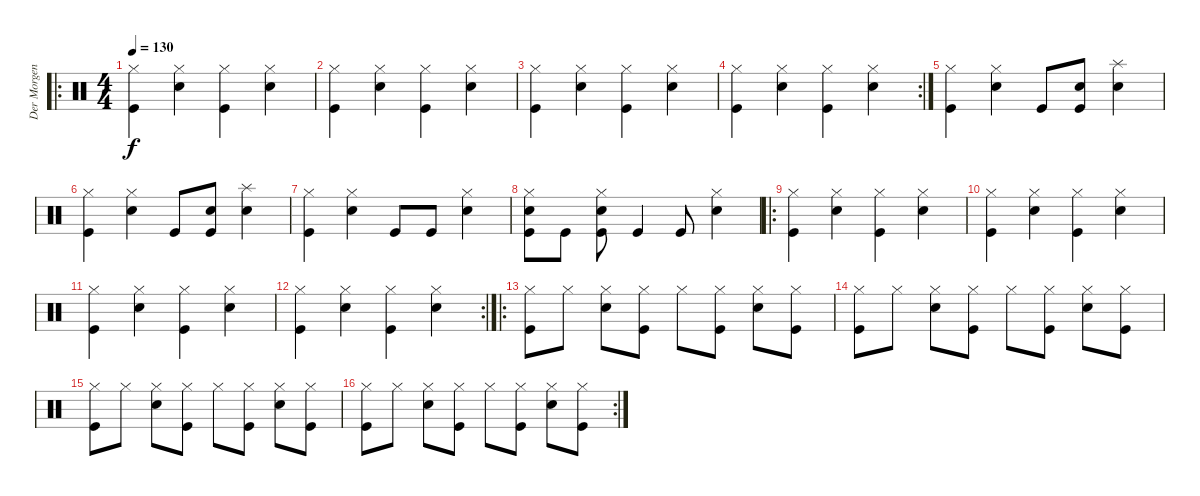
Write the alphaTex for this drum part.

\track ("Der Morgenstern" "Der Morgen") {instrument percussion}
\staff {score}
\articulation defaults
\ro
\ts (4 4)
\tempo 130
\clef neutral
\ks c
("Hi-Hat (closed)" "Kick (hit)").4{dy f} ("Hi-Hat (closed)" "Snare (hit) 2").4 ("Hi-Hat (closed)" "Kick (hit)").4 ("Hi-Hat (closed)" "Snare (hit) 2").4 |
("Hi-Hat (closed)" "Kick (hit)").4 ("Hi-Hat (closed)" "Snare (hit) 2").4 ("Hi-Hat (closed)" "Kick (hit)").4 ("Hi-Hat (closed)" "Snare (hit) 2").4 |
("Hi-Hat (closed)" "Kick (hit)").4 ("Hi-Hat (closed)" "Snare (hit) 2").4 ("Hi-Hat (closed)" "Kick (hit)").4 ("Hi-Hat (closed)" "Snare (hit) 2").4 |
\rc 2
("Hi-Hat (closed)" "Kick (hit)").4 ("Hi-Hat (closed)" "Snare (hit) 2").4 ("Hi-Hat (closed)" "Kick (hit)").4 ("Hi-Hat (closed)" "Snare (hit) 2").4 |
("Hi-Hat (closed)" "Kick (hit)").4 ("Hi-Hat (closed)" "Snare (hit) 2").4 "Kick (hit)".8 ("Snare (hit) 2" "Kick (hit)").8 ("Splash (hit)" "Snare (hit) 2").4 |
("Hi-Hat (closed)" "Kick (hit)").4 ("Hi-Hat (closed)" "Snare (hit) 2").4 "Kick (hit)".8 ("Snare (hit) 2" "Kick (hit)").8 ("Splash (hit)" "Snare (hit) 2").4 |
("Hi-Hat (closed)" "Kick (hit)").4 ("Hi-Hat (closed)" "Snare (hit) 2").4 "Kick (hit)".8 "Kick (hit)".8 ("Hi-Hat (closed)" "Snare (hit) 2").4 |
("Hi-Hat (closed)" "Snare (hit) 2" "Kick (hit)").8 "Kick (hit)".8 ("Hi-Hat (closed)" "Snare (hit) 2" "Kick (hit)").8 "Kick (hit)".4 "Kick (hit)".8 ("Hi-Hat (closed)" "Snare (hit) 2").4 |
\ro
("Hi-Hat (closed)" "Kick (hit)").4 ("Hi-Hat (closed)" "Snare (hit) 2").4 ("Hi-Hat (closed)" "Kick (hit)").4 ("Hi-Hat (closed)" "Snare (hit) 2").4 |
("Hi-Hat (closed)" "Kick (hit)").4 ("Hi-Hat (closed)" "Snare (hit) 2").4 ("Hi-Hat (closed)" "Kick (hit)").4 ("Hi-Hat (closed)" "Snare (hit) 2").4 |
("Hi-Hat (closed)" "Kick (hit)").4 ("Hi-Hat (closed)" "Snare (hit) 2").4 ("Hi-Hat (closed)" "Kick (hit)").4 ("Hi-Hat (closed)" "Snare (hit) 2").4 |
\rc 2
("Hi-Hat (closed)" "Kick (hit)").4 ("Hi-Hat (closed)" "Snare (hit) 2").4 ("Hi-Hat (closed)" "Kick (hit)").4 ("Hi-Hat (closed)" "Snare (hit) 2").4 |
\ro
("Hi-Hat (closed)" "Kick (hit)").8 "Hi-Hat (closed)".8 ("Hi-Hat (closed)" "Snare (hit) 2").8 ("Hi-Hat (closed)" "Kick (hit)").8 "Hi-Hat (closed)".8 ("Hi-Hat (closed)" "Kick (hit)").8 ("Hi-Hat (closed)" "Snare (hit) 2").8 ("Hi-Hat (closed)" "Kick (hit)").8 |
("Hi-Hat (closed)" "Kick (hit)").8 "Hi-Hat (closed)".8 ("Hi-Hat (closed)" "Snare (hit) 2").8 ("Hi-Hat (closed)" "Kick (hit)").8 "Hi-Hat (closed)".8 ("Hi-Hat (closed)" "Kick (hit)").8 ("Hi-Hat (closed)" "Snare (hit) 2").8 ("Hi-Hat (closed)" "Kick (hit)").8 |
("Hi-Hat (closed)" "Kick (hit)").8 "Hi-Hat (closed)".8 ("Hi-Hat (closed)" "Snare (hit) 2").8 ("Hi-Hat (closed)" "Kick (hit)").8 "Hi-Hat (closed)".8 ("Hi-Hat (closed)" "Kick (hit)").8 ("Hi-Hat (closed)" "Snare (hit) 2").8 ("Hi-Hat (closed)" "Kick (hit)").8 |
\rc 2
("Hi-Hat (closed)" "Kick (hit)").8 "Hi-Hat (closed)".8 ("Hi-Hat (closed)" "Snare (hit) 2").8 ("Hi-Hat (closed)" "Kick (hit)").8 "Hi-Hat (closed)".8 ("Hi-Hat (closed)" "Kick (hit)").8 ("Hi-Hat (closed)" "Snare (hit) 2").8 ("Hi-Hat (closed)" "Kick (hit)").8
